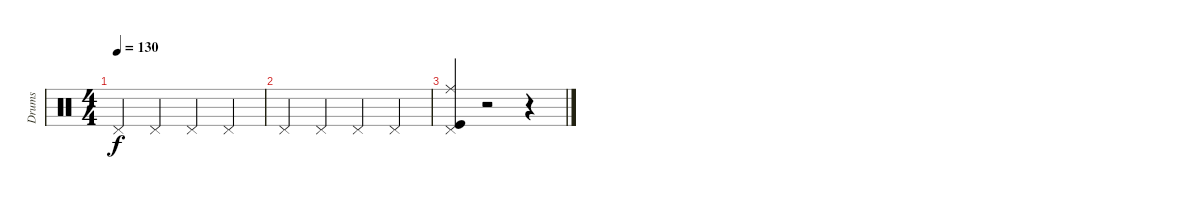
\track ("Drums" "Drums") {instrument percussion}
\staff {score}
\articulation defaults
\ts (4 4)
\tempo 130
\clef neutral
\ks c "Pedal Hi-Hat (hit)".4{dy f} "Pedal Hi-Hat (hit)".4 "Pedal Hi-Hat (hit)".4 "Pedal Hi-Hat (hit)".4
|
"Pedal Hi-Hat (hit)".4 "Pedal Hi-Hat (hit)".4 "Pedal Hi-Hat (hit)".4 "Pedal Hi-Hat (hit)".4 |
("Kick (hit)" "Pedal Hi-Hat (hit)" "Ride (middle)").4 r.2 r.4
